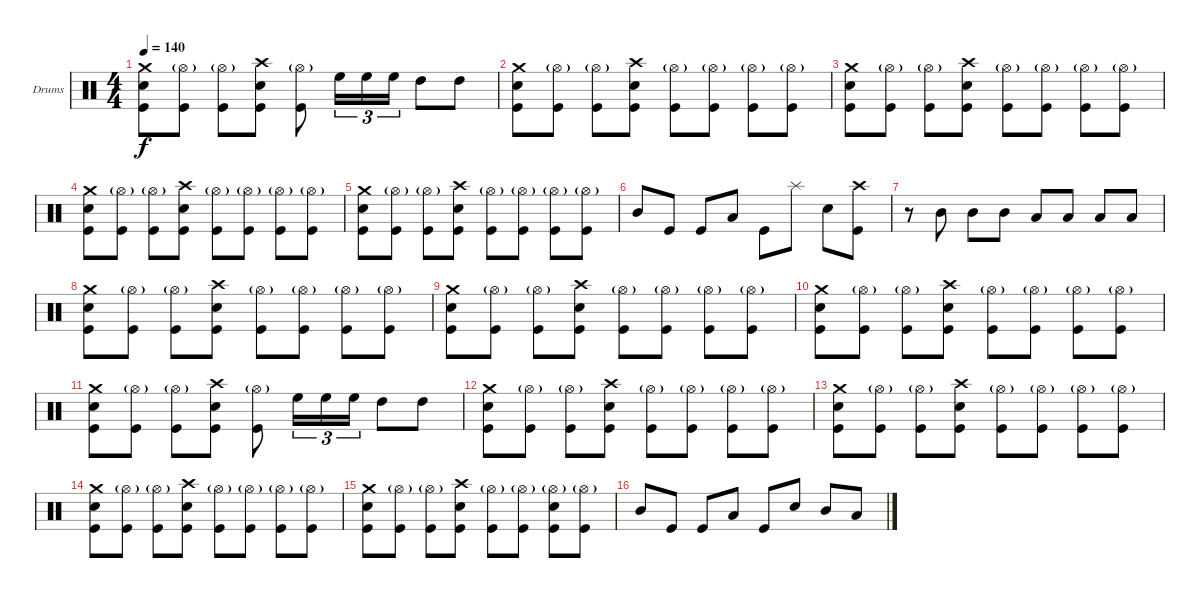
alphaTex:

\bracketExtendMode groupsimilarinstruments
\firstSystemTrackNameOrientation horizontal
\otherSystemsTrackNameOrientation horizontal
\track ("Дмитрий Кривенков" "Drums") {instrument percussion}
\staff {score}
\articulation defaults
\ts (4 4)
\tempo 140
\clef neutral
\ks c
("Crash medium (hit)" "Snare (hit) 2" "Kick (hit)").8{dy f} ("Hi-Hat (open)"{g} "Kick (hit)").8 ("Hi-Hat (open)"{g} "Kick (hit)").8 ("Crash high (hit)" "Snare (hit) 2" "Kick (hit)").8 ("Hi-Hat (open)"{g} "Kick (hit)").8 "High Floor Tom (hit)".16{tu (3 2)} "High Floor Tom (hit)".16{tu (3 2)} "High Floor Tom (hit)".16{tu (3 2)} "High Tom (hit)".8 "High Tom (hit)".8 |
("Crash medium (hit)" "Snare (hit) 2" "Kick (hit)").8 ("Hi-Hat (open)"{g} "Kick (hit)").8 ("Hi-Hat (open)"{g} "Kick (hit)").8 ("Crash high (hit)" "Snare (hit) 2" "Kick (hit)").8 ("Hi-Hat (open)"{g} "Kick (hit)").8 ("Hi-Hat (open)"{g} "Kick (hit)").8 ("Hi-Hat (open)"{g} "Kick (hit)").8 ("Hi-Hat (open)"{g} "Kick (hit)").8 |
("Crash medium (hit)" "Snare (hit) 2" "Kick (hit)").8 ("Hi-Hat (open)"{g} "Kick (hit)").8 ("Hi-Hat (open)"{g} "Kick (hit)").8 ("Crash high (hit)" "Snare (hit) 2" "Kick (hit)").8 ("Hi-Hat (open)"{g} "Kick (hit)").8 ("Hi-Hat (open)"{g} "Kick (hit)").8 ("Hi-Hat (open)"{g} "Kick (hit)").8 ("Hi-Hat (open)"{g} "Kick (hit)").8 |
("Crash medium (hit)" "Snare (hit) 2" "Kick (hit)").8 ("Hi-Hat (open)"{g} "Kick (hit)").8 ("Hi-Hat (open)"{g} "Kick (hit)").8 ("Crash high (hit)" "Snare (hit) 2" "Kick (hit)").8 ("Hi-Hat (open)"{g} "Kick (hit)").8 ("Hi-Hat (open)"{g} "Kick (hit)").8 ("Hi-Hat (open)"{g} "Kick (hit)").8 ("Hi-Hat (open)"{g} "Kick (hit)").8 |
("Crash medium (hit)" "Snare (hit) 2" "Kick (hit)").8 ("Hi-Hat (open)"{g} "Kick (hit)").8 ("Hi-Hat (open)"{g} "Kick (hit)").8 ("Crash high (hit)" "Snare (hit) 2" "Kick (hit)").8 ("Hi-Hat (open)"{g} "Kick (hit)").8 ("Hi-Hat (open)"{g} "Kick (hit)").8 ("Hi-Hat (open)"{g} "Kick (hit)").8 ("Hi-Hat (open)"{g} "Kick (hit)").8 |
"Mid Tom (hit)".8 "Kick (hit)".8 "Kick (hit)".8 "Low Tom (hit)".8 "Kick (hit)".8 "Splash (hit)".8 "Snare (hit) 2".8 ("Crash high (hit)" "Kick (hit)").8 |
r.8 "Mid Tom (hit)".8 "Mid Tom (hit)".8 "Mid Tom (hit)".8 "Low Tom (hit)".8 "Low Tom (hit)".8 "Low Tom (hit)".8 "Low Tom (hit)".8 |
("Crash medium (hit)" "Snare (hit) 2" "Kick (hit)").8 ("Hi-Hat (open)"{g} "Kick (hit)").8 ("Hi-Hat (open)"{g} "Kick (hit)").8 ("Crash high (hit)" "Snare (hit) 2" "Kick (hit)").8 ("Hi-Hat (open)"{g} "Kick (hit)").8 ("Hi-Hat (open)"{g} "Kick (hit)").8 ("Hi-Hat (open)"{g} "Kick (hit)").8 ("Hi-Hat (open)"{g} "Kick (hit)").8 |
("Crash medium (hit)" "Snare (hit) 2" "Kick (hit)").8 ("Hi-Hat (open)"{g} "Kick (hit)").8 ("Hi-Hat (open)"{g} "Kick (hit)").8 ("Crash high (hit)" "Snare (hit) 2" "Kick (hit)").8 ("Hi-Hat (open)"{g} "Kick (hit)").8 ("Hi-Hat (open)"{g} "Kick (hit)").8 ("Hi-Hat (open)"{g} "Kick (hit)").8 ("Hi-Hat (open)"{g} "Kick (hit)").8 |
("Crash medium (hit)" "Snare (hit) 2" "Kick (hit)").8 ("Hi-Hat (open)"{g} "Kick (hit)").8 ("Hi-Hat (open)"{g} "Kick (hit)").8 ("Crash high (hit)" "Snare (hit) 2" "Kick (hit)").8 ("Hi-Hat (open)"{g} "Kick (hit)").8 ("Hi-Hat (open)"{g} "Kick (hit)").8 ("Hi-Hat (open)"{g} "Kick (hit)").8 ("Hi-Hat (open)"{g} "Kick (hit)").8 |
("Crash medium (hit)" "Snare (hit) 2" "Kick (hit)").8 ("Hi-Hat (open)"{g} "Kick (hit)").8 ("Hi-Hat (open)"{g} "Kick (hit)").8 ("Crash high (hit)" "Snare (hit) 2" "Kick (hit)").8 ("Hi-Hat (open)"{g} "Kick (hit)").8 "High Floor Tom (hit)".16{tu (3 2)} "High Floor Tom (hit)".16{tu (3 2)} "High Floor Tom (hit)".16{tu (3 2)} "High Tom (hit)".8 "High Tom (hit)".8 |
("Crash medium (hit)" "Snare (hit) 2" "Kick (hit)").8 ("Hi-Hat (open)"{g} "Kick (hit)").8 ("Hi-Hat (open)"{g} "Kick (hit)").8 ("Crash high (hit)" "Snare (hit) 2" "Kick (hit)").8 ("Hi-Hat (open)"{g} "Kick (hit)").8 ("Hi-Hat (open)"{g} "Kick (hit)").8 ("Hi-Hat (open)"{g} "Kick (hit)").8 ("Hi-Hat (open)"{g} "Kick (hit)").8 |
("Crash medium (hit)" "Snare (hit) 2" "Kick (hit)").8 ("Hi-Hat (open)"{g} "Kick (hit)").8 ("Hi-Hat (open)"{g} "Kick (hit)").8 ("Crash high (hit)" "Snare (hit) 2" "Kick (hit)").8 ("Hi-Hat (open)"{g} "Kick (hit)").8 ("Hi-Hat (open)"{g} "Kick (hit)").8 ("Hi-Hat (open)"{g} "Kick (hit)").8 ("Hi-Hat (open)"{g} "Kick (hit)").8 |
("Crash medium (hit)" "Snare (hit) 2" "Kick (hit)").8 ("Hi-Hat (open)"{g} "Kick (hit)").8 ("Hi-Hat (open)"{g} "Kick (hit)").8 ("Crash high (hit)" "Snare (hit) 2" "Kick (hit)").8 ("Hi-Hat (open)"{g} "Kick (hit)").8 ("Hi-Hat (open)"{g} "Kick (hit)").8 ("Hi-Hat (open)"{g} "Kick (hit)").8 ("Hi-Hat (open)"{g} "Kick (hit)").8 |
("Crash medium (hit)" "Snare (hit) 2" "Kick (hit)").8 ("Hi-Hat (open)"{g} "Kick (hit)").8 ("Hi-Hat (open)"{g} "Kick (hit)").8 ("Crash high (hit)" "Snare (hit) 2" "Kick (hit)").8 ("Hi-Hat (open)"{g} "Kick (hit)").8 ("Hi-Hat (open)"{g} "Kick (hit)").8 ("Hi-Hat (open)"{g} "Snare (hit) 2" "Kick (hit)").8 ("Hi-Hat (open)"{g} "Kick (hit)").8 |
"Mid Tom (hit)".8 "Kick (hit)".8 "Kick (hit)".8 "Low Tom (hit)".8 "Kick (hit)".8 "Snare (hit) 2".8 "Mid Tom (hit)".8 "Low Tom (hit)".8
